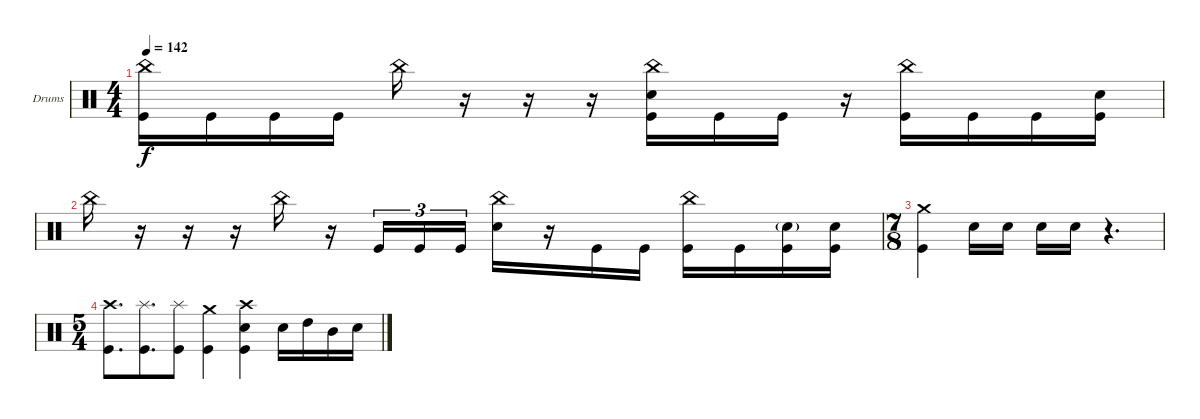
\bracketExtendMode groupsimilarinstruments
\firstSystemTrackNameOrientation horizontal
\otherSystemsTrackNameOrientation horizontal
\track ("Drumkit" "Drums") {instrument percussion}
\staff {score}
\articulation defaults
\ts (4 4)
\tempo 142
\clef neutral
\ks c
("China (hit)" "Kick (hit)").16{dy f} "Kick (hit)".16 "Kick (hit)".16 "Kick (hit)".16 "China (hit)".16 r.16 r.16 r.16 ("China (hit)" "Snare (hit) 2" "Kick (hit)").16 "Kick (hit)".16 "Kick (hit)".16 r.16 ("China (hit)" "Kick (hit)").16 "Kick (hit)".16 "Kick (hit)".16 ("Snare (hit) 2" "Kick (hit)").16 |
"China (hit)".16 r.16 r.16 r.16 "China (hit)".16 r.16 "Kick (hit)".16{tu (3 2)} "Kick (hit)".16{tu (3 2)} "Kick (hit)".16{tu (3 2)} ("China (hit)" "Snare (hit) 2").16 r.16 "Kick (hit)".16 "Kick (hit)".16 ("China (hit)" "Kick (hit)").16 "Kick (hit)".16 ("Snare (hit) 2"{g} "Kick (hit)").16 ("Snare (hit) 2" "Kick (hit)").16 |
\ts (7 8)
\beaming (8 3 2 2)
("Crash medium (hit)" "Kick (hit)").4 "Snare (hit) 2".16 "Snare (hit) 2".16 "Snare (hit) 2".16 "Snare (hit) 2".16 r.4{d} |
\ts (5 4)
\beaming (8 6 4)
("Crash high (hit)" "Kick (hit)").8{d} ("Splash (hit)" "Kick (hit)").8{d} ("Splash (hit)" "Kick (hit)").8 ("Crash medium (hit)" "Kick (hit)").4 ("Crash high (hit)" "Snare (hit) 2" "Kick (hit)").4 "Snare (hit) 2".16 "High Tom (hit)".16 "Mid Tom (hit)".16 "Snare (hit) 2".16
